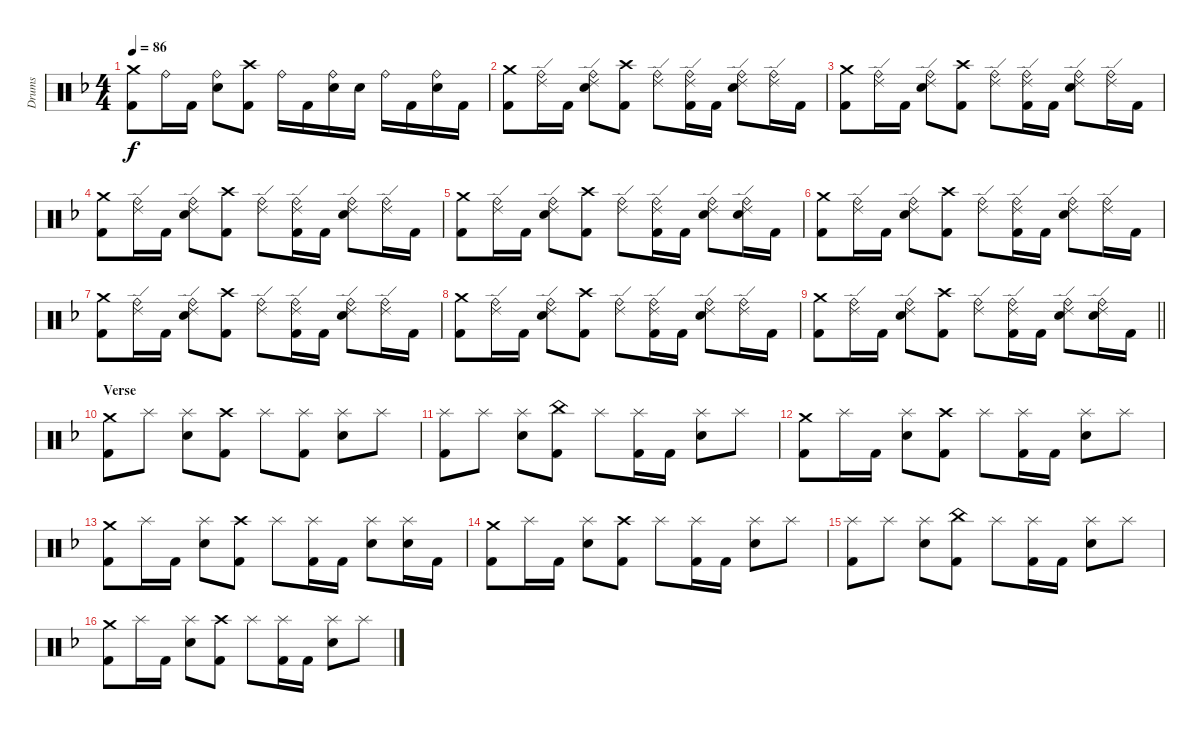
\track ("Drums" "Drums") {instrument percussion}
\staff {score}
\articulation defaults
\ts (4 4)
\tempo 86
\clef neutral
\ks dminor
("Crash medium (hit)" "Kick (hit) 2").8{dy f} "Ride (bell)".16 "Kick (hit) 2".16 ("Ride (bell)" "Snare (hit) 2").8 ("Crash high (hit)" "Kick (hit) 2").8 "Ride (bell)".16 "Kick (hit) 2".16 ("Ride (bell)" "Snare (hit) 2").16 "Snare (hit) 2".16 "Ride (bell)".16 "Kick (hit) 2".16 ("Ride (bell)" "Snare (hit) 2").16 "Kick (hit) 2".16 |
("Crash medium (hit)" "Kick (hit) 2").8 ("Ride (bell)" "Ride (edge) 2").16 "Kick (hit) 2".16 ("Ride (bell)" "Ride (edge) 2" "Snare (hit) 2").8 ("Crash high (hit)" "Kick (hit) 2").8 ("Ride (bell)" "Ride (edge) 2").8 ("Ride (bell)" "Ride (edge) 2" "Kick (hit) 2").16 "Kick (hit) 2".16 ("Ride (bell)" "Ride (edge) 2" "Snare (hit) 2").8 ("Ride (bell)" "Ride (edge) 2").16 "Kick (hit) 2".16 |
("Crash medium (hit)" "Kick (hit) 2").8 ("Ride (bell)" "Ride (edge) 2").16 "Kick (hit) 2".16 ("Ride (bell)" "Ride (edge) 2" "Snare (hit) 2").8 ("Crash high (hit)" "Kick (hit) 2").8 ("Ride (bell)" "Ride (edge) 2").8 ("Ride (bell)" "Ride (edge) 2" "Kick (hit) 2").16 "Kick (hit) 2".16 ("Ride (bell)" "Ride (edge) 2" "Snare (hit) 2").8 ("Ride (bell)" "Ride (edge) 2").16 "Kick (hit) 2".16 |
("Crash medium (hit)" "Kick (hit) 2").8 ("Ride (bell)" "Ride (edge) 2").16 "Kick (hit) 2".16 ("Ride (bell)" "Ride (edge) 2" "Snare (hit) 2").8 ("Crash high (hit)" "Kick (hit) 2").8 ("Ride (bell)" "Ride (edge) 2").8 ("Ride (bell)" "Ride (edge) 2" "Kick (hit) 2").16 "Kick (hit) 2".16 ("Ride (bell)" "Ride (edge) 2" "Snare (hit) 2").8 ("Ride (bell)" "Ride (edge) 2").16 "Kick (hit) 2".16 |
("Crash medium (hit)" "Kick (hit) 2").8 ("Ride (bell)" "Ride (edge) 2").16 "Kick (hit) 2".16 ("Ride (bell)" "Ride (edge) 2" "Snare (hit) 2").8 ("Crash high (hit)" "Kick (hit) 2").8 ("Ride (bell)" "Ride (edge) 2").8 ("Ride (bell)" "Ride (edge) 2" "Kick (hit) 2").16 "Kick (hit) 2".16 ("Ride (bell)" "Ride (edge) 2" "Snare (hit) 2").8 ("Ride (bell)" "Ride (edge) 2" "Snare (hit) 2").16 "Kick (hit) 2".16 |
("Crash medium (hit)" "Kick (hit) 2").8 ("Ride (bell)" "Ride (edge) 2").16 "Kick (hit) 2".16 ("Ride (bell)" "Ride (edge) 2" "Snare (hit) 2").8 ("Crash high (hit)" "Kick (hit) 2").8 ("Ride (bell)" "Ride (edge) 2").8 ("Ride (bell)" "Ride (edge) 2" "Kick (hit) 2").16 "Kick (hit) 2".16 ("Ride (bell)" "Ride (edge) 2" "Snare (hit) 2").8 ("Ride (bell)" "Ride (edge) 2").16 "Kick (hit) 2".16 |
("Crash medium (hit)" "Kick (hit) 2").8 ("Ride (bell)" "Ride (edge) 2").16 "Kick (hit) 2".16 ("Ride (bell)" "Ride (edge) 2" "Snare (hit) 2").8 ("Crash high (hit)" "Kick (hit) 2").8 ("Ride (bell)" "Ride (edge) 2").8 ("Ride (bell)" "Ride (edge) 2" "Kick (hit) 2").16 "Kick (hit) 2".16 ("Ride (bell)" "Ride (edge) 2" "Snare (hit) 2").8 ("Ride (bell)" "Ride (edge) 2").16 "Kick (hit) 2".16 |
("Crash medium (hit)" "Kick (hit) 2").8 ("Ride (bell)" "Ride (edge) 2").16 "Kick (hit) 2".16 ("Ride (bell)" "Ride (edge) 2" "Snare (hit) 2").8 ("Crash high (hit)" "Kick (hit) 2").8 ("Ride (bell)" "Ride (edge) 2").8 ("Ride (bell)" "Ride (edge) 2" "Kick (hit) 2").16 "Kick (hit) 2".16 ("Ride (bell)" "Ride (edge) 2" "Snare (hit) 2").8 ("Ride (bell)" "Ride (edge) 2").16 "Kick (hit) 2".16 |
\barLineRight lightlight
("Crash medium (hit)" "Kick (hit) 2").8 ("Ride (bell)" "Ride (edge) 2").16 "Kick (hit) 2".16 ("Ride (bell)" "Ride (edge) 2" "Snare (hit) 2").8 ("Crash high (hit)" "Kick (hit) 2").8 ("Ride (bell)" "Ride (edge) 2").8 ("Ride (bell)" "Ride (edge) 2" "Kick (hit) 2").16 "Kick (hit) 2".16 ("Ride (bell)" "Ride (edge) 2" "Snare (hit) 2").8 ("Ride (bell)" "Ride (edge) 2" "Snare (hit) 2").16 "Kick (hit) 2".16 |
\section ("" "Verse")
("Crash medium (hit)" "Kick (hit) 2").8 "Splash (hit)".8 ("Splash (hit)" "Snare (hit) 2").8 ("Crash high (hit)" "Kick (hit) 2").8 "Splash (hit)".8 ("Splash (hit)" "Kick (hit) 2").8 ("Splash (hit)" "Snare (hit) 2").8 "Splash (hit)".8 |
("Splash (hit)" "Kick (hit) 2").8 "Splash (hit)".8 ("Splash (hit)" "Snare (hit) 2").8 ("China (hit)" "Kick (hit) 2").8 "Splash (hit)".8 ("Splash (hit)" "Kick (hit) 2").16 "Kick (hit) 2".16 ("Splash (hit)" "Snare (hit) 2").8 "Splash (hit)".8 |
("Crash medium (hit)" "Kick (hit) 2").8 "Splash (hit)".16 "Kick (hit) 2".16 ("Splash (hit)" "Snare (hit) 2").8 ("Crash high (hit)" "Kick (hit) 2").8 "Splash (hit)".8 ("Splash (hit)" "Kick (hit) 2").16 "Kick (hit) 2".16 ("Splash (hit)" "Snare (hit) 2").8 "Splash (hit)".8 |
("Crash medium (hit)" "Kick (hit) 2").8 "Splash (hit)".16 "Kick (hit) 2".16 ("Splash (hit)" "Snare (hit) 2").8 ("Crash high (hit)" "Kick (hit) 2").8 "Splash (hit)".8 ("Splash (hit)" "Kick (hit) 2").16 "Kick (hit) 2".16 ("Splash (hit)" "Snare (hit) 2").8 ("Splash (hit)" "Snare (hit) 2").16 "Kick (hit) 2".16 |
("Crash medium (hit)" "Kick (hit) 2").8 "Splash (hit)".16 "Kick (hit) 2".16 ("Splash (hit)" "Snare (hit) 2").8 ("Crash high (hit)" "Kick (hit) 2").8 "Splash (hit)".8 ("Splash (hit)" "Kick (hit) 2").16 "Kick (hit) 2".16 ("Splash (hit)" "Snare (hit) 2").8 "Splash (hit)".8 |
("Splash (hit)" "Kick (hit) 2").8 "Splash (hit)".8 ("Splash (hit)" "Snare (hit) 2").8 ("China (hit)" "Kick (hit) 2").8 "Splash (hit)".8 ("Splash (hit)" "Kick (hit) 2").16 "Kick (hit) 2".16 ("Splash (hit)" "Snare (hit) 2").8 "Splash (hit)".8 |
("Crash medium (hit)" "Kick (hit) 2").8 "Splash (hit)".16 "Kick (hit) 2".16 ("Splash (hit)" "Snare (hit) 2").8 ("Crash high (hit)" "Kick (hit) 2").8 "Splash (hit)".8 ("Splash (hit)" "Kick (hit) 2").16 "Kick (hit) 2".16 ("Splash (hit)" "Snare (hit) 2").8 "Splash (hit)".8
